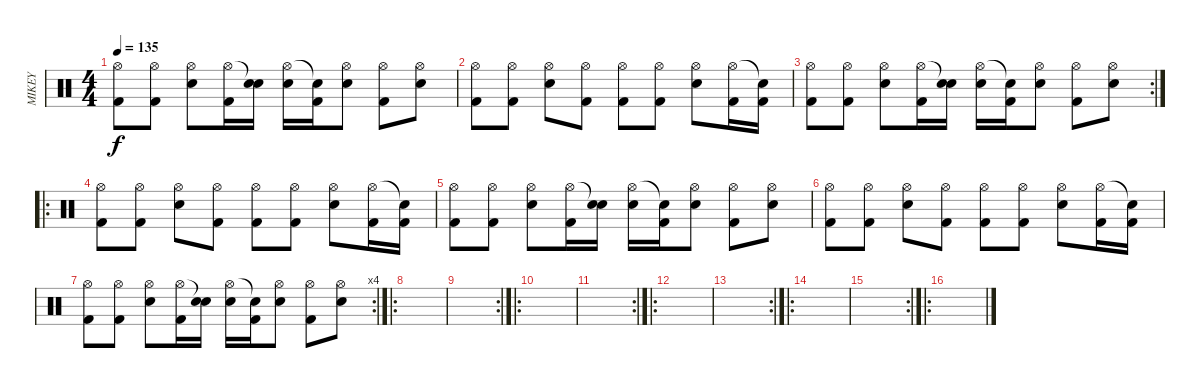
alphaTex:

\track ("MIKEY" "MIKEY") {instrument percussion}
\staff {score}
\articulation defaults
\ts (4 4)
\tempo 135
\clef neutral
\ks c
("Hi-Hat (open)" "Kick (hit) 2").8{dy f} ("Hi-Hat (open)" "Kick (hit) 2").8 ("Hi-Hat (open)" "Electric Snare (hit)").8 ("Hi-Hat (open)" "Kick (hit) 2").16 ("Snare (hit)"{t} "Electric Snare (hit)").16 ("Hi-Hat (open)" "Electric Snare (hit)").16 ("Snare (hit)"{t} "Kick (hit) 2").16 ("Hi-Hat (open)" "Electric Snare (hit)").8 ("Hi-Hat (open)" "Kick (hit) 2").8 ("Hi-Hat (open)" "Electric Snare (hit)").8 |
("Hi-Hat (open)" "Kick (hit) 2").8 ("Hi-Hat (open)" "Kick (hit) 2").8 ("Hi-Hat (open)" "Electric Snare (hit)").8 ("Hi-Hat (open)" "Kick (hit) 2").8 ("Hi-Hat (open)" "Kick (hit) 2").8 ("Hi-Hat (open)" "Kick (hit) 2").8 ("Hi-Hat (open)" "Electric Snare (hit)").8 ("Hi-Hat (open)" "Kick (hit) 2").16 ("Snare (hit)"{t} "Kick (hit) 2").16 |
\rc 2
("Hi-Hat (open)" "Kick (hit) 2").8 ("Hi-Hat (open)" "Kick (hit) 2").8 ("Hi-Hat (open)" "Electric Snare (hit)").8 ("Hi-Hat (open)" "Kick (hit) 2").16 ("Snare (hit)"{t} "Electric Snare (hit)").16 ("Hi-Hat (open)" "Electric Snare (hit)").16 ("Snare (hit)"{t} "Kick (hit) 2").16 ("Hi-Hat (open)" "Electric Snare (hit)").8 ("Hi-Hat (open)" "Kick (hit) 2").8 ("Hi-Hat (open)" "Electric Snare (hit)").8 |
\ro
("Hi-Hat (open)" "Kick (hit) 2").8 ("Hi-Hat (open)" "Kick (hit) 2").8 ("Hi-Hat (open)" "Electric Snare (hit)").8 ("Hi-Hat (open)" "Kick (hit) 2").8 ("Hi-Hat (open)" "Kick (hit) 2").8 ("Hi-Hat (open)" "Kick (hit) 2").8 ("Hi-Hat (open)" "Electric Snare (hit)").8 ("Hi-Hat (open)" "Kick (hit) 2").16 ("Snare (hit)"{t} "Kick (hit) 2").16 |
("Hi-Hat (open)" "Kick (hit) 2").8 ("Hi-Hat (open)" "Kick (hit) 2").8 ("Hi-Hat (open)" "Electric Snare (hit)").8 ("Hi-Hat (open)" "Kick (hit) 2").16 ("Snare (hit)"{t} "Electric Snare (hit)").16 ("Hi-Hat (open)" "Electric Snare (hit)").16 ("Snare (hit)"{t} "Kick (hit) 2").16 ("Hi-Hat (open)" "Electric Snare (hit)").8 ("Hi-Hat (open)" "Kick (hit) 2").8 ("Hi-Hat (open)" "Electric Snare (hit)").8 |
("Hi-Hat (open)" "Kick (hit) 2").8 ("Hi-Hat (open)" "Kick (hit) 2").8 ("Hi-Hat (open)" "Electric Snare (hit)").8 ("Hi-Hat (open)" "Kick (hit) 2").8 ("Hi-Hat (open)" "Kick (hit) 2").8 ("Hi-Hat (open)" "Kick (hit) 2").8 ("Hi-Hat (open)" "Electric Snare (hit)").8 ("Hi-Hat (open)" "Kick (hit) 2").16 ("Snare (hit)"{t} "Kick (hit) 2").16 |
\rc 4
("Hi-Hat (open)" "Kick (hit) 2").8 ("Hi-Hat (open)" "Kick (hit) 2").8 ("Hi-Hat (open)" "Electric Snare (hit)").8 ("Hi-Hat (open)" "Kick (hit) 2").16 ("Snare (hit)"{t} "Electric Snare (hit)").16 ("Hi-Hat (open)" "Electric Snare (hit)").16 ("Snare (hit)"{t} "Kick (hit) 2").16 ("Hi-Hat (open)" "Electric Snare (hit)").8 ("Hi-Hat (open)" "Kick (hit) 2").8 ("Hi-Hat (open)" "Electric Snare (hit)").8 |
\ro
|
\rc 2
|
\ro
|
\rc 2
|
\ro
|
\rc 2
|
\ro
|
\rc 2
|
\ro
